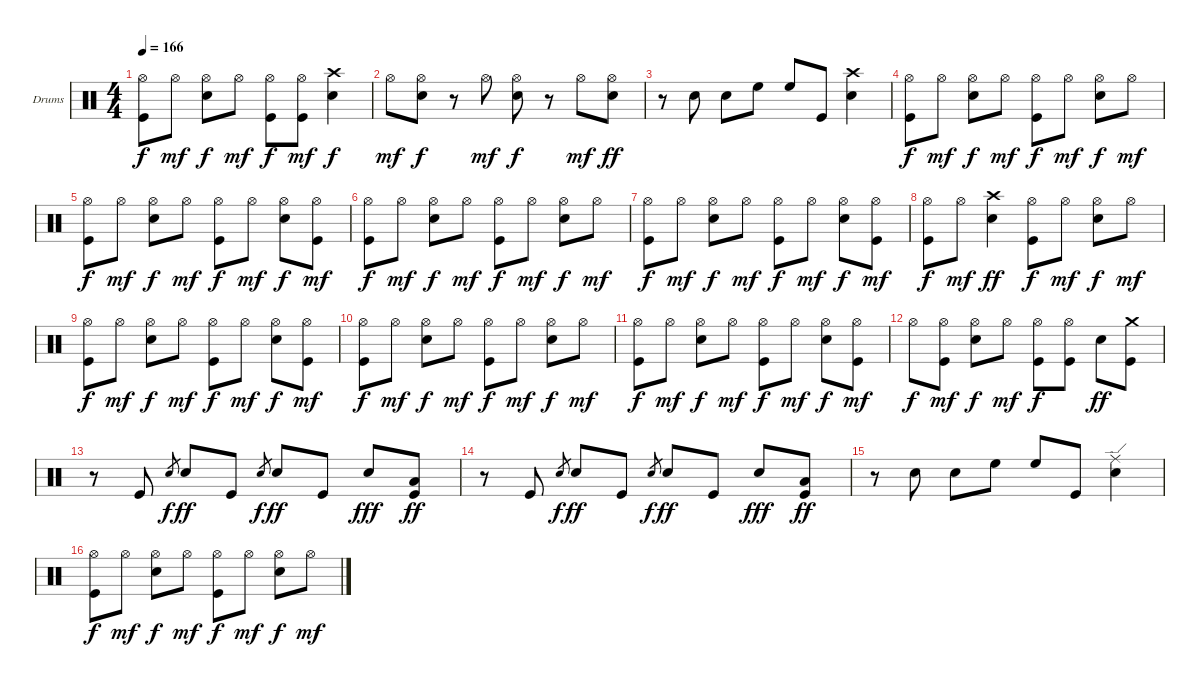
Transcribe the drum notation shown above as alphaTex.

\defaultSystemsLayout 4
\bracketExtendMode groupsimilarinstruments
\firstSystemTrackNameOrientation horizontal
\otherSystemsTrackNameOrientation horizontal
\track ("Lars Ulrich" "Drums") {instrument percussion}
\staff {score}
\articulation defaults
\ts (4 4)
\tempo 166
\clef neutral
\scale
0.333333
\ks c
("Hi-Hat (open)" "Kick (hit)").8{dy f} "Hi-Hat (open)".8{dy mf} ("Hi-Hat (open)" "Snare (hit) 2").8{dy f} "Hi-Hat (open)".8{dy mf} ("Hi-Hat (open)" "Kick (hit)").8{dy f} ("Hi-Hat (open)" "Kick (hit)").8{dy mf} ("Crash high (hit)" "Snare (hit) 2").4{dy f} |
\scale
0.333333 "Hi-Hat (open)".8{dy mf} ("Hi-Hat (open)" "Snare (hit) 2").8{dy f} r.8 "Hi-Hat (open)".8{dy mf} ("Hi-Hat (open)" "Snare (hit) 2").8{dy f} r.8 "Hi-Hat (open)".8{dy mf} ("Hi-Hat (open)" "Snare (hit) 2").8{dy ff} |
\scale
0.333333 r.8 "Snare (hit) 2".8 "Snare (hit) 2".8 "High Floor Tom (hit)".8 "High Floor Tom (hit)".8 "Kick (hit)".8 ("Crash high (hit)" "Snare (hit) 2").4 |
\scale
0.333333 ("Hi-Hat (open)" "Kick (hit)").8{dy f} "Hi-Hat (open)".8{dy mf} ("Hi-Hat (open)" "Snare (hit) 2").8{dy f} "Hi-Hat (open)".8{dy mf} ("Hi-Hat (open)" "Kick (hit)").8{dy f} "Hi-Hat (open)".8{dy mf} ("Hi-Hat (open)" "Snare (hit) 2").8{dy f} "Hi-Hat (open)".8{dy mf} |
\scale
0.333333 ("Hi-Hat (open)" "Kick (hit)").8{dy f} "Hi-Hat (open)".8{dy mf} ("Hi-Hat (open)" "Snare (hit) 2").8{dy f} "Hi-Hat (open)".8{dy mf} ("Hi-Hat (open)" "Kick (hit)").8{dy f} "Hi-Hat (open)".8{dy mf} ("Hi-Hat (open)" "Snare (hit) 2").8{dy f} ("Hi-Hat (open)" "Kick (hit)").8{dy mf} |
\scale
0.333333 ("Hi-Hat (open)" "Kick (hit)").8{dy f} "Hi-Hat (open)".8{dy mf} ("Hi-Hat (open)" "Snare (hit) 2").8{dy f} "Hi-Hat (open)".8{dy mf} ("Hi-Hat (open)" "Kick (hit)").8{dy f} "Hi-Hat (open)".8{dy mf} ("Hi-Hat (open)" "Snare (hit) 2").8{dy f} "Hi-Hat (open)".8{dy mf} |
\scale
0.333333 ("Hi-Hat (open)" "Kick (hit)").8{dy f} "Hi-Hat (open)".8{dy mf} ("Hi-Hat (open)" "Snare (hit) 2").8{dy f} "Hi-Hat (open)".8{dy mf} ("Hi-Hat (open)" "Kick (hit)").8{dy f} "Hi-Hat (open)".8{dy mf} ("Hi-Hat (open)" "Snare (hit) 2").8{dy f} ("Hi-Hat (open)" "Kick (hit)").8{dy mf} |
\scale
0.333333 ("Hi-Hat (open)" "Kick (hit)").8{dy f} "Hi-Hat (open)".8{dy mf} ("Crash high (hit)" "Snare (hit) 2").4{dy ff} ("Hi-Hat (open)" "Kick (hit)").8{dy f} "Hi-Hat (open)".8{dy mf} ("Hi-Hat (open)" "Snare (hit) 2").8{dy f} "Hi-Hat (open)".8{dy mf} |
\scale
0.333333 ("Hi-Hat (open)" "Kick (hit)").8{dy f} "Hi-Hat (open)".8{dy mf} ("Hi-Hat (open)" "Snare (hit) 2").8{dy f} "Hi-Hat (open)".8{dy mf} ("Hi-Hat (open)" "Kick (hit)").8{dy f} "Hi-Hat (open)".8{dy mf} ("Hi-Hat (open)" "Snare (hit) 2").8{dy f} ("Hi-Hat (open)" "Kick (hit)").8{dy mf} |
\scale
0.333333 ("Hi-Hat (open)" "Kick (hit)").8{dy f} "Hi-Hat (open)".8{dy mf} ("Hi-Hat (open)" "Snare (hit) 2").8{dy f} "Hi-Hat (open)".8{dy mf} ("Hi-Hat (open)" "Kick (hit)").8{dy f} "Hi-Hat (open)".8{dy mf} ("Hi-Hat (open)" "Snare (hit) 2").8{dy f} "Hi-Hat (open)".8{dy mf} |
\scale
0.333333 ("Hi-Hat (open)" "Kick (hit)").8{dy f} "Hi-Hat (open)".8{dy mf} ("Hi-Hat (open)" "Snare (hit) 2").8{dy f} "Hi-Hat (open)".8{dy mf} ("Hi-Hat (open)" "Kick (hit)").8{dy f} "Hi-Hat (open)".8{dy mf} ("Hi-Hat (open)" "Snare (hit) 2").8{dy f} ("Hi-Hat (open)" "Kick (hit)").8{dy mf} |
\scale
0.333333 "Hi-Hat (open)".8{dy f} ("Hi-Hat (open)" "Kick (hit)").8{dy mf} ("Hi-Hat (open)" "Snare (hit) 2").8{dy f} "Hi-Hat (open)".8{dy mf} ("Hi-Hat (open)" "Kick (hit)").8{dy f} ("Hi-Hat (open)" "Kick (hit)").8 "Snare (hit) 2".8{dy ff} ("Crash medium (hit)" "Kick (hit)").8 |
\scale
0.333333 r.8 "Kick (hit)".8 "Snare (hit) 2".8{gr dy f} "Snare (hit) 2".8{dy ff} "Kick (hit)".8 "Snare (hit) 2".8{gr dy f} "Snare (hit) 2".8{dy ff} "Kick (hit)".8 "Snare (hit) 2".8{dy fff} ("Low Tom (hit)" "Kick (hit)").8{dy ff} |
\scale
0.333333 r.8 "Kick (hit)".8 "Snare (hit) 2".8{gr dy f} "Snare (hit) 2".8{dy ff} "Kick (hit)".8 "Snare (hit) 2".8{gr dy f} "Snare (hit) 2".8{dy ff} "Kick (hit)".8 "Snare (hit) 2".8{dy fff} ("Low Tom (hit)" "Kick (hit)").8{dy ff} |
\scale
0.333333 r.8 "Snare (hit) 2".8 "Snare (hit) 2".8 "High Floor Tom (hit)".8 "High Floor Tom (hit)".8 "Kick (hit)".8 ("Ride (edge)" "Snare (hit) 2").4 |
\scale
0.333333 ("Hi-Hat (open)" "Kick (hit)").8{dy f} "Hi-Hat (open)".8{dy mf} ("Hi-Hat (open)" "Snare (hit) 2").8{dy f} "Hi-Hat (open)".8{dy mf} ("Hi-Hat (open)" "Kick (hit)").8{dy f} "Hi-Hat (open)".8{dy mf} ("Hi-Hat (open)" "Snare (hit) 2").8{dy f} "Hi-Hat (open)".8{dy mf}
